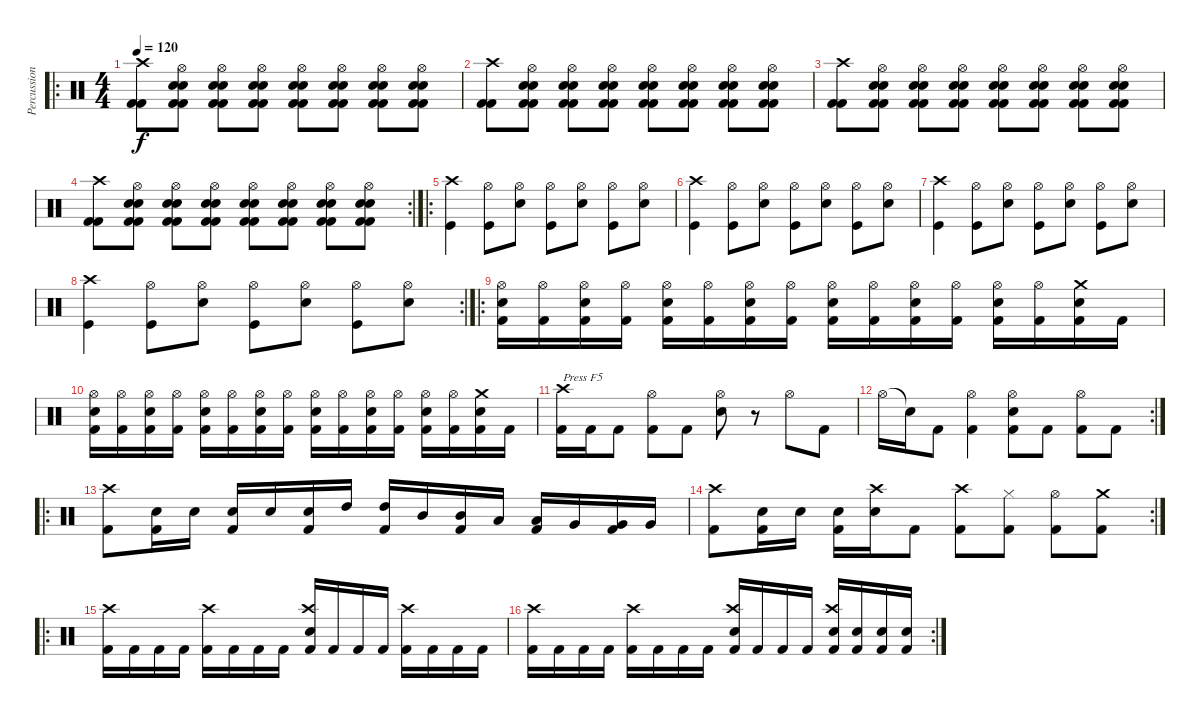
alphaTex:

\track ("Percussions" "Percussion") {instrument percussion}
\staff {score}
\articulation defaults
\ro
\ts (4 4)
\tempo 120
\clef neutral
\ks c
("Kick (hit) 2" "Kick (hit) 2" "Crash high (hit)").8{dy f} ("Kick (hit) 2" "Kick (hit) 2" "Electric Snare (hit)" "Electric Snare (hit)" "Hi-Hat (open)").8 ("Kick (hit) 2" "Kick (hit) 2" "Electric Snare (hit)" "Electric Snare (hit)" "Hi-Hat (open)").8 ("Kick (hit) 2" "Kick (hit) 2" "Electric Snare (hit)" "Electric Snare (hit)" "Hi-Hat (open)").8 ("Kick (hit) 2" "Kick (hit) 2" "Electric Snare (hit)" "Electric Snare (hit)" "Hi-Hat (open)").8 ("Kick (hit) 2" "Kick (hit) 2" "Electric Snare (hit)" "Electric Snare (hit)" "Hi-Hat (open)").8 ("Kick (hit) 2" "Kick (hit) 2" "Electric Snare (hit)" "Electric Snare (hit)" "Hi-Hat (open)").8 ("Kick (hit) 2" "Kick (hit) 2" "Electric Snare (hit)" "Electric Snare (hit)" "Hi-Hat (open)").8 |
("Kick (hit) 2" "Kick (hit) 2" "Crash high (hit)").8 ("Kick (hit) 2" "Kick (hit) 2" "Electric Snare (hit)" "Electric Snare (hit)" "Hi-Hat (open)").8 ("Kick (hit) 2" "Kick (hit) 2" "Electric Snare (hit)" "Electric Snare (hit)" "Hi-Hat (open)").8 ("Kick (hit) 2" "Kick (hit) 2" "Electric Snare (hit)" "Electric Snare (hit)" "Hi-Hat (open)").8 ("Kick (hit) 2" "Kick (hit) 2" "Electric Snare (hit)" "Electric Snare (hit)" "Hi-Hat (open)").8 ("Kick (hit) 2" "Kick (hit) 2" "Electric Snare (hit)" "Electric Snare (hit)" "Hi-Hat (open)").8 ("Kick (hit) 2" "Kick (hit) 2" "Electric Snare (hit)" "Electric Snare (hit)" "Hi-Hat (open)").8 ("Kick (hit) 2" "Kick (hit) 2" "Electric Snare (hit)" "Electric Snare (hit)" "Hi-Hat (open)").8 |
("Kick (hit) 2" "Kick (hit) 2" "Crash high (hit)").8 ("Kick (hit) 2" "Kick (hit) 2" "Electric Snare (hit)" "Electric Snare (hit)" "Hi-Hat (open)").8 ("Kick (hit) 2" "Kick (hit) 2" "Electric Snare (hit)" "Electric Snare (hit)" "Hi-Hat (open)").8 ("Kick (hit) 2" "Kick (hit) 2" "Electric Snare (hit)" "Electric Snare (hit)" "Hi-Hat (open)").8 ("Kick (hit) 2" "Kick (hit) 2" "Electric Snare (hit)" "Electric Snare (hit)" "Hi-Hat (open)").8 ("Kick (hit) 2" "Kick (hit) 2" "Electric Snare (hit)" "Electric Snare (hit)" "Hi-Hat (open)").8 ("Kick (hit) 2" "Kick (hit) 2" "Electric Snare (hit)" "Electric Snare (hit)" "Hi-Hat (open)").8 ("Kick (hit) 2" "Kick (hit) 2" "Electric Snare (hit)" "Electric Snare (hit)" "Hi-Hat (open)").8 |
\rc 2
("Kick (hit) 2" "Kick (hit) 2" "Crash high (hit)").8 ("Kick (hit) 2" "Kick (hit) 2" "Electric Snare (hit)" "Electric Snare (hit)" "Hi-Hat (open)").8 ("Kick (hit) 2" "Kick (hit) 2" "Electric Snare (hit)" "Electric Snare (hit)" "Hi-Hat (open)").8 ("Kick (hit) 2" "Kick (hit) 2" "Electric Snare (hit)" "Electric Snare (hit)" "Hi-Hat (open)").8 ("Kick (hit) 2" "Kick (hit) 2" "Electric Snare (hit)" "Electric Snare (hit)" "Hi-Hat (open)").8 ("Kick (hit) 2" "Kick (hit) 2" "Electric Snare (hit)" "Electric Snare (hit)" "Hi-Hat (open)").8 ("Kick (hit) 2" "Kick (hit) 2" "Electric Snare (hit)" "Electric Snare (hit)" "Hi-Hat (open)").8 ("Kick (hit) 2" "Kick (hit) 2" "Electric Snare (hit)" "Electric Snare (hit)" "Hi-Hat (open)").8 |
\ro
("Crash high (hit)" "Kick (hit)").4 ("Hi-Hat (open)" "Kick (hit)").8 ("Hi-Hat (open)" "Snare (hit) 2").8 ("Hi-Hat (open)" "Kick (hit)").8 ("Hi-Hat (open)" "Snare (hit) 2").8 ("Hi-Hat (open)" "Kick (hit)").8 ("Hi-Hat (open)" "Snare (hit) 2").8 |
("Crash high (hit)" "Kick (hit)").4 ("Hi-Hat (open)" "Kick (hit)").8 ("Hi-Hat (open)" "Snare (hit) 2").8 ("Hi-Hat (open)" "Kick (hit)").8 ("Hi-Hat (open)" "Snare (hit) 2").8 ("Hi-Hat (open)" "Kick (hit)").8 ("Hi-Hat (open)" "Snare (hit) 2").8 |
("Crash high (hit)" "Kick (hit)").4 ("Hi-Hat (open)" "Kick (hit)").8 ("Hi-Hat (open)" "Snare (hit) 2").8 ("Hi-Hat (open)" "Kick (hit)").8 ("Hi-Hat (open)" "Snare (hit) 2").8 ("Hi-Hat (open)" "Kick (hit)").8 ("Hi-Hat (open)" "Snare (hit) 2").8 |
\rc 2
("Crash high (hit)" "Kick (hit)").4 ("Hi-Hat (open)" "Kick (hit)").8 ("Hi-Hat (open)" "Snare (hit) 2").8 ("Hi-Hat (open)" "Kick (hit)").8 ("Hi-Hat (open)" "Snare (hit) 2").8 ("Hi-Hat (open)" "Kick (hit)").8 ("Hi-Hat (open)" "Snare (hit) 2").8 |
\ro
("Hi-Hat (open)" "Electric Snare (hit)" "Kick (hit) 2").16 ("Hi-Hat (open)" "Kick (hit) 2").16 ("Hi-Hat (open)" "Electric Snare (hit)" "Kick (hit) 2").16 ("Hi-Hat (open)" "Kick (hit) 2").16 ("Hi-Hat (open)" "Electric Snare (hit)" "Kick (hit) 2").16 ("Hi-Hat (open)" "Kick (hit) 2").16 ("Hi-Hat (open)" "Electric Snare (hit)" "Kick (hit) 2").16 ("Hi-Hat (open)" "Kick (hit) 2").16 ("Hi-Hat (open)" "Electric Snare (hit)" "Kick (hit) 2").16 ("Hi-Hat (open)" "Kick (hit) 2").16 ("Hi-Hat (open)" "Electric Snare (hit)" "Kick (hit) 2").16 ("Hi-Hat (open)" "Kick (hit) 2").16 ("Hi-Hat (open)" "Electric Snare (hit)" "Kick (hit) 2").16 ("Hi-Hat (open)" "Kick (hit) 2").16 ("Crash medium (hit)" "Electric Snare (hit)" "Kick (hit) 2").16 "Kick (hit) 2".16 |
("Hi-Hat (open)" "Electric Snare (hit)" "Kick (hit) 2").16 ("Hi-Hat (open)" "Kick (hit) 2").16 ("Hi-Hat (open)" "Electric Snare (hit)" "Kick (hit) 2").16 ("Hi-Hat (open)" "Kick (hit) 2").16 ("Hi-Hat (open)" "Electric Snare (hit)" "Kick (hit) 2").16 ("Hi-Hat (open)" "Kick (hit) 2").16 ("Hi-Hat (open)" "Electric Snare (hit)" "Kick (hit) 2").16 ("Hi-Hat (open)" "Kick (hit) 2").16 ("Hi-Hat (open)" "Electric Snare (hit)" "Kick (hit) 2").16 ("Hi-Hat (open)" "Kick (hit) 2").16 ("Hi-Hat (open)" "Electric Snare (hit)" "Kick (hit) 2").16 ("Hi-Hat (open)" "Kick (hit) 2").16 ("Hi-Hat (open)" "Electric Snare (hit)" "Kick (hit) 2").16 ("Hi-Hat (open)" "Kick (hit) 2").16 ("Crash medium (hit)" "Electric Snare (hit)" "Kick (hit) 2").16 "Kick (hit) 2".16 |
("Crash high (hit)" "Kick (hit) 2").16{txt "Press F5"} "Kick (hit) 2".16 "Kick (hit) 2".8 ("Hi-Hat (open)" "Kick (hit) 2").8 "Kick (hit) 2".8 ("Hi-Hat (open)" "Electric Snare (hit)").8 r.8 "Hi-Hat (open)".8 "Kick (hit) 2".8 |
\rc 2 "Hi-Hat (open)".16 "Snare (hit)"{t}.16 "Kick (hit) 2".8
("Hi-Hat (open)" "Kick (hit) 2").4 ("Hi-Hat (open)" "Electric Snare (hit)" "Kick (hit) 2").8 "Kick (hit) 2".8 ("Hi-Hat (open)" "Kick (hit) 2").8 "Kick (hit) 2".8 |
\ro
("Crash high (hit)" "Kick (hit) 2").8 ("Electric Snare (hit)" "Kick (hit) 2").16 "Electric Snare (hit)".16 ("Electric Snare (hit)" "Kick (hit) 2").16 "Electric Snare (hit)".16 ("Electric Snare (hit)" "Kick (hit) 2").16 "High Tom (hit)".16 ("High Tom (hit)" "Kick (hit) 2").16 "Mid Tom (hit)".16 ("Mid Tom (hit)" "Kick (hit) 2").16 "Low Tom (hit)".16 ("Low Tom (hit)" "Kick (hit) 2").16 "Very Low Tom (hit)".16 ("Very Low Tom (hit)" "Kick (hit) 2").16 "Very Low Tom (hit)".16 |
\rc 2
("Crash high (hit)" "Kick (hit) 2").8 ("Electric Snare (hit)" "Kick (hit) 2").16 "Electric Snare (hit)".16 ("Electric Snare (hit)" "Kick (hit) 2").16 ("Crash high (hit)" "Electric Snare (hit)").16 "Kick (hit) 2".8 ("Crash high (hit)" "Kick (hit) 2").8 ("Hi-Hat (closed)" "Kick (hit) 2").8 ("Hi-Hat (open)" "Kick (hit) 2").8 ("Crash medium (hit)" "Kick (hit) 2").8 |
\ro
("Crash high (hit)" "Kick (hit) 2").16 "Kick (hit) 2".16 "Kick (hit) 2".16 "Kick (hit) 2".16 ("Crash high (hit)" "Kick (hit) 2").16 "Kick (hit) 2".16 "Kick (hit) 2".16 "Kick (hit) 2".16 ("Crash high (hit)" "Electric Snare (hit)" "Kick (hit) 2").16 "Kick (hit) 2".16 "Kick (hit) 2".16 "Kick (hit) 2".16 ("Crash high (hit)" "Kick (hit) 2").16 "Kick (hit) 2".16 "Kick (hit) 2".16 "Kick (hit) 2".16 |
\rc 2
("Crash high (hit)" "Kick (hit) 2").16 "Kick (hit) 2".16 "Kick (hit) 2".16 "Kick (hit) 2".16 ("Crash high (hit)" "Kick (hit) 2").16 "Kick (hit) 2".16 "Kick (hit) 2".16 "Kick (hit) 2".16 ("Crash high (hit)" "Electric Snare (hit)" "Kick (hit) 2").16 "Kick (hit) 2".16 "Kick (hit) 2".16 "Kick (hit) 2".16 ("Crash high (hit)" "Electric Snare (hit)" "Kick (hit) 2").16 ("Electric Snare (hit)" "Kick (hit) 2").16 ("Electric Snare (hit)" "Kick (hit) 2").16 ("Electric Snare (hit)" "Kick (hit) 2").16
